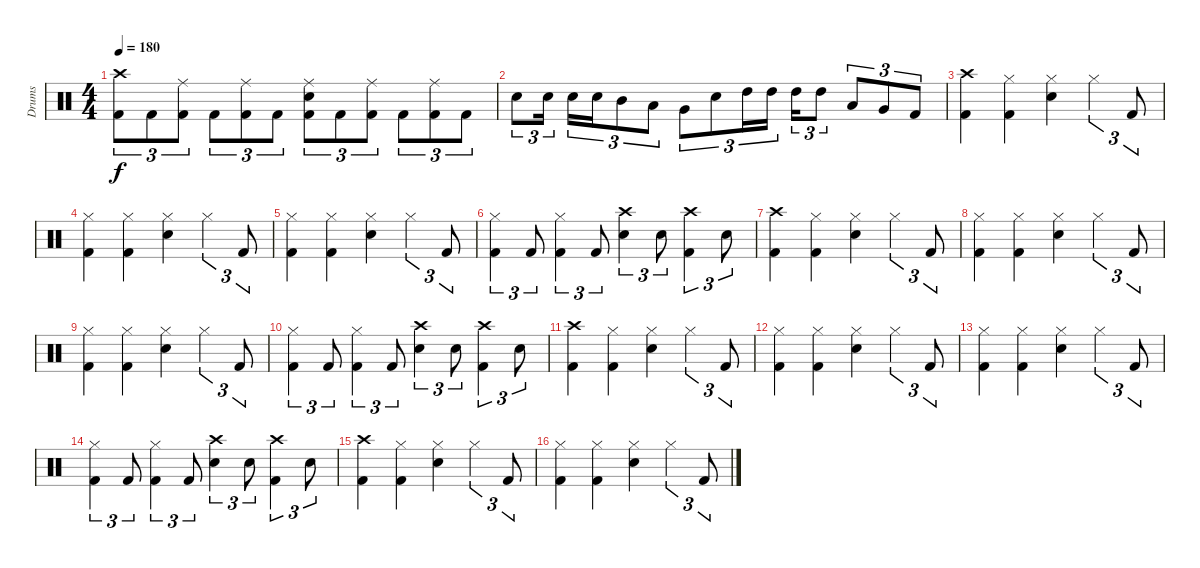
\track ("Drums" "Drums") {instrument percussion}
\staff {score}
\articulation defaults
\ts (4 4)
\tempo 180
\clef neutral
\ks c
("Crash high (hit)" "Kick (hit) 2").8{tu (3 2) dy f} "Kick (hit) 2".8{tu (3 2)} ("Ride (middle)" "Kick (hit) 2").8{tu (3 2)} "Kick (hit) 2".8{tu (3 2)} ("Ride (middle)" "Kick (hit) 2").8{tu (3 2)} "Kick (hit) 2".8{tu (3 2)} ("Ride (middle)" "Snare (hit) 2" "Kick (hit) 2").8{tu (3 2)} "Kick (hit) 2".8{tu (3 2)} ("Ride (middle)" "Kick (hit) 2").8{tu (3 2)} "Kick (hit) 2".8{tu (3 2)} ("Ride (middle)" "Kick (hit) 2").8{tu (3 2)} "Kick (hit) 2".8{tu (3 2)} |
"Snare (hit) 2".8{tu (3 2)} "Snare (hit) 2".16{tu (3 2)} "Snare (hit) 2".16{tu (3 2)} "Snare (hit) 2".16{tu (3 2)} "Mid Tom (hit)".8{tu (3 2)} "Low Tom (hit)".8{tu (3 2)} "Very Low Tom (hit)".8{tu (3 2)} "Snare (hit) 2".8{tu (3 2)} "High Tom (hit)".16{tu (3 2)} "High Tom (hit)".16{tu (3 2)} "High Tom (hit)".16{tu (3 2)} "High Tom (hit)".8{tu (3 2)} "Low Tom (hit)".8{tu (3 2)} "Very Low Tom (hit)".8{tu (3 2)} "Kick (hit) 2".8{tu (3 2)} |
("Crash high (hit)" "Kick (hit) 2").4 ("Hi-Hat (closed)" "Kick (hit) 2").4 ("Hi-Hat (closed)" "Snare (hit) 2").4 "Hi-Hat (closed)".4{tu (3 2)} "Kick (hit) 2".8{tu (3 2)} |
("Hi-Hat (closed)" "Kick (hit) 2").4 ("Hi-Hat (closed)" "Kick (hit) 2").4 ("Hi-Hat (closed)" "Snare (hit) 2").4 "Hi-Hat (closed)".4{tu (3 2)} "Kick (hit) 2".8{tu (3 2)} |
("Hi-Hat (closed)" "Kick (hit) 2").4 ("Hi-Hat (closed)" "Kick (hit) 2").4 ("Hi-Hat (closed)" "Snare (hit) 2").4 "Hi-Hat (closed)".4{tu (3 2)} "Kick (hit) 2".8{tu (3 2)} |
("Hi-Hat (closed)" "Kick (hit) 2").4{tu (3 2)} "Kick (hit) 2".8{tu (3 2)} ("Hi-Hat (closed)" "Kick (hit) 2").4{tu (3 2)} "Kick (hit) 2".8{tu (3 2)} ("Crash high (hit)" "Snare (hit) 2").4{tu (3 2)} "Snare (hit) 2".8{tu (3 2)} ("Crash high (hit)" "Kick (hit) 2").4{tu (3 2)} "Snare (hit) 2".8{tu (3 2)} |
("Crash high (hit)" "Kick (hit) 2").4 ("Hi-Hat (closed)" "Kick (hit) 2").4 ("Hi-Hat (closed)" "Snare (hit) 2").4 "Hi-Hat (closed)".4{tu (3 2)} "Kick (hit) 2".8{tu (3 2)} |
("Hi-Hat (closed)" "Kick (hit) 2").4 ("Hi-Hat (closed)" "Kick (hit) 2").4 ("Hi-Hat (closed)" "Snare (hit) 2").4 "Hi-Hat (closed)".4{tu (3 2)} "Kick (hit) 2".8{tu (3 2)} |
("Hi-Hat (closed)" "Kick (hit) 2").4 ("Hi-Hat (closed)" "Kick (hit) 2").4 ("Hi-Hat (closed)" "Snare (hit) 2").4 "Hi-Hat (closed)".4{tu (3 2)} "Kick (hit) 2".8{tu (3 2)} |
("Hi-Hat (closed)" "Kick (hit) 2").4{tu (3 2)} "Kick (hit) 2".8{tu (3 2)} ("Hi-Hat (closed)" "Kick (hit) 2").4{tu (3 2)} "Kick (hit) 2".8{tu (3 2)} ("Crash high (hit)" "Snare (hit) 2").4{tu (3 2)} "Snare (hit) 2".8{tu (3 2)} ("Crash high (hit)" "Kick (hit) 2").4{tu (3 2)} "Snare (hit) 2".8{tu (3 2)} |
("Crash high (hit)" "Kick (hit) 2").4 ("Hi-Hat (closed)" "Kick (hit) 2").4 ("Hi-Hat (closed)" "Snare (hit) 2").4 "Hi-Hat (closed)".4{tu (3 2)} "Kick (hit) 2".8{tu (3 2)} |
("Hi-Hat (closed)" "Kick (hit) 2").4 ("Hi-Hat (closed)" "Kick (hit) 2").4 ("Hi-Hat (closed)" "Snare (hit) 2").4 "Hi-Hat (closed)".4{tu (3 2)} "Kick (hit) 2".8{tu (3 2)} |
("Hi-Hat (closed)" "Kick (hit) 2").4 ("Hi-Hat (closed)" "Kick (hit) 2").4 ("Hi-Hat (closed)" "Snare (hit) 2").4 "Hi-Hat (closed)".4{tu (3 2)} "Kick (hit) 2".8{tu (3 2)} |
("Hi-Hat (closed)" "Kick (hit) 2").4{tu (3 2)} "Kick (hit) 2".8{tu (3 2)} ("Hi-Hat (closed)" "Kick (hit) 2").4{tu (3 2)} "Kick (hit) 2".8{tu (3 2)} ("Crash high (hit)" "Snare (hit) 2").4{tu (3 2)} "Snare (hit) 2".8{tu (3 2)} ("Crash high (hit)" "Kick (hit) 2").4{tu (3 2)} "Snare (hit) 2".8{tu (3 2)} |
("Crash high (hit)" "Kick (hit) 2").4 ("Hi-Hat (closed)" "Kick (hit) 2").4 ("Hi-Hat (closed)" "Snare (hit) 2").4 "Hi-Hat (closed)".4{tu (3 2)} "Kick (hit) 2".8{tu (3 2)} |
("Hi-Hat (closed)" "Kick (hit) 2").4 ("Hi-Hat (closed)" "Kick (hit) 2").4 ("Hi-Hat (closed)" "Snare (hit) 2").4 "Hi-Hat (closed)".4{tu (3 2)} "Kick (hit) 2".8{tu (3 2)}
